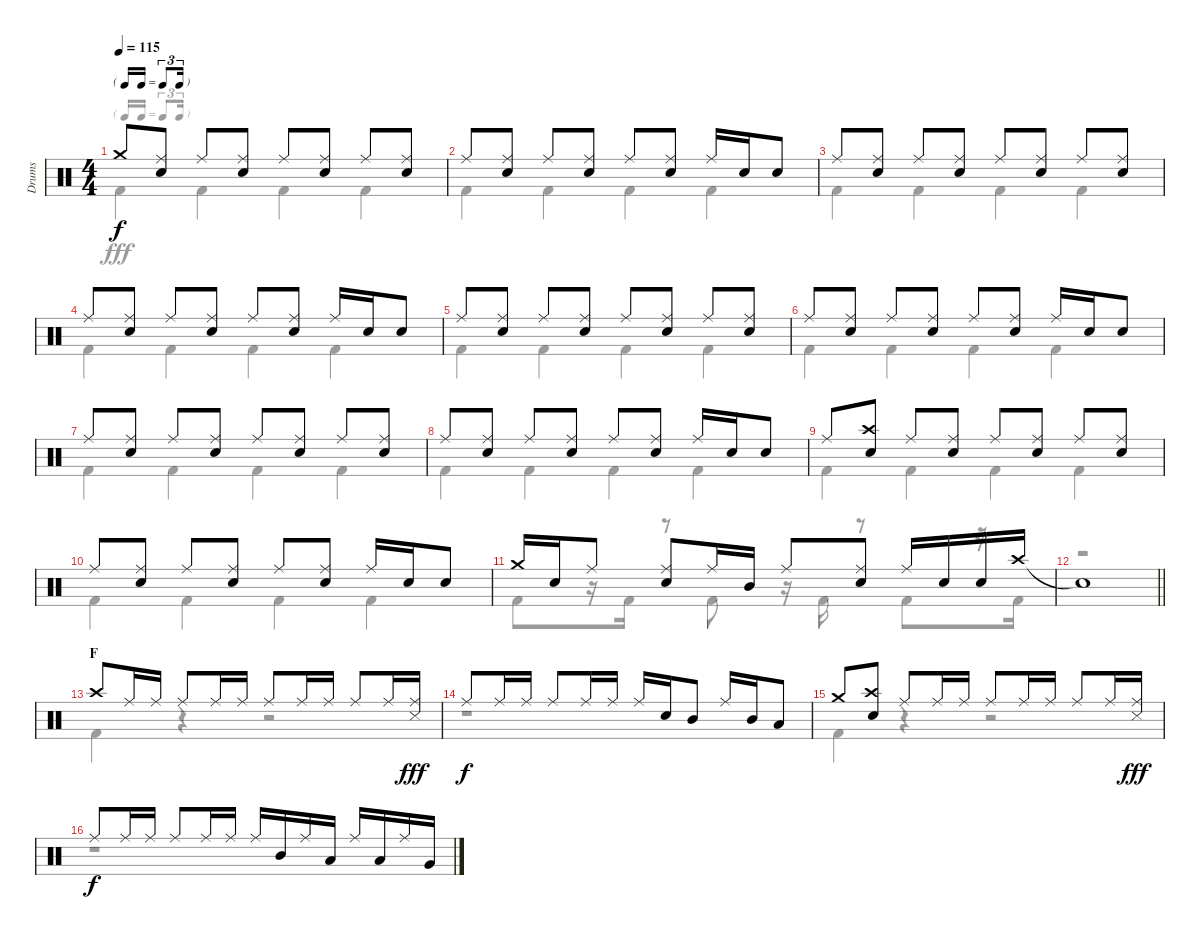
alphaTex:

\track ("Drums" "Drums") {instrument percussion}
\staff {score}
\articulation defaults
\voice
\ts (4 4)
\tf triplet16th
\tempo 115
\clef neutral
\ks c "Crash medium (hit)".8{dy f}
("Ride (middle)" "Snare (hit) 2").8 "Ride (middle)".8 ("Ride (middle)" "Snare (hit) 2").8 "Ride (middle)".8 ("Ride (middle)" "Snare (hit) 2").8 "Ride (middle)".8 ("Ride (middle)" "Snare (hit) 2").8 |
"Ride (middle)".8 ("Ride (middle)" "Snare (hit) 2").8 "Ride (middle)".8 ("Ride (middle)" "Snare (hit) 2").8 "Ride (middle)".8 ("Ride (middle)" "Snare (hit) 2").8 "Ride (middle)".16 "Snare (hit) 2".16 "Snare (hit) 2".8 |
"Ride (middle)".8 ("Ride (middle)" "Snare (hit) 2").8 "Ride (middle)".8 ("Ride (middle)" "Snare (hit) 2").8 "Ride (middle)".8 ("Ride (middle)" "Snare (hit) 2").8 "Ride (middle)".8 ("Ride (middle)" "Snare (hit) 2").8 |
"Ride (middle)".8 ("Ride (middle)" "Snare (hit) 2").8 "Ride (middle)".8 ("Ride (middle)" "Snare (hit) 2").8 "Ride (middle)".8 ("Ride (middle)" "Snare (hit) 2").8 "Ride (middle)".16 "Snare (hit) 2".16 "Snare (hit) 2".8 |
"Ride (middle)".8 ("Ride (middle)" "Snare (hit) 2").8 "Ride (middle)".8 ("Ride (middle)" "Snare (hit) 2").8 "Ride (middle)".8 ("Ride (middle)" "Snare (hit) 2").8 "Ride (middle)".8 ("Ride (middle)" "Snare (hit) 2").8 |
"Ride (middle)".8 ("Ride (middle)" "Snare (hit) 2").8 "Ride (middle)".8 ("Ride (middle)" "Snare (hit) 2").8 "Ride (middle)".8 ("Ride (middle)" "Snare (hit) 2").8 "Ride (middle)".16 "Snare (hit) 2".16 "Snare (hit) 2".8 |
"Ride (middle)".8 ("Ride (middle)" "Snare (hit) 2").8 "Ride (middle)".8 ("Ride (middle)" "Snare (hit) 2").8 "Ride (middle)".8 ("Ride (middle)" "Snare (hit) 2").8 "Ride (middle)".8 ("Ride (middle)" "Snare (hit) 2").8 |
"Ride (middle)".8 ("Ride (middle)" "Snare (hit) 2").8 "Ride (middle)".8 ("Ride (middle)" "Snare (hit) 2").8 "Ride (middle)".8 ("Ride (middle)" "Snare (hit) 2").8 "Ride (middle)".16 "Snare (hit) 2".16 "Snare (hit) 2".8 |
"Ride (middle)".8 ("Crash high (hit)" "Snare (hit) 2").8 "Ride (middle)".8 ("Ride (middle)" "Snare (hit) 2").8 "Ride (middle)".8 ("Ride (middle)" "Snare (hit) 2").8 "Ride (middle)".8 ("Ride (middle)" "Snare (hit) 2").8 |
"Ride (middle)".8 ("Ride (middle)" "Snare (hit) 2").8 "Ride (middle)".8 ("Ride (middle)" "Snare (hit) 2").8 "Ride (middle)".8 ("Ride (middle)" "Snare (hit) 2").8 "Ride (middle)".16 "Snare (hit) 2".16 "Snare (hit) 2".8 |
"Crash medium (hit)".16 "Snare (hit) 2".16 "Ride (middle)".8 ("Ride (middle)" "Snare (hit) 2").8 "Ride (middle)".16 "Mid Tom (hit)".16 "Ride (middle)".8 ("Ride (middle)" "Snare (hit) 2").8 "Ride (middle)".16 "Snare (hit) 2".16 "Snare (hit) 2".16 "Crash high (hit)".16 |
\barLineRight lightlight "Snare (hit)"{t}.1
|
\section ("" "F")
"Crash high (hit)".8 "Ride (middle)".16 "Ride (middle)".16 "Ride (middle)".8 "Ride (middle)".16 "Ride (middle)".16 "Ride (middle)".8 "Ride (middle)".16 "Ride (middle)".16 "Ride (middle)".8 "Ride (middle)".16 ("Ride (middle)" "Snare (side stick) 3").16{dy fff} |
"Ride (middle)".8{dy f} "Ride (middle)".16 "Ride (middle)".16 "Ride (middle)".8 "Ride (middle)".16 "Ride (middle)".16 "Ride (middle)".16 "Snare (hit) 2".16 "Mid Tom (hit)".8 "Ride (middle)".16 "Mid Tom (hit)".16 "Low Tom (hit)".8 |
"Crash medium (hit)".8 ("Crash high (hit)" "Snare (hit) 2").8 "Ride (middle)".8 "Ride (middle)".16 "Ride (middle)".16 "Ride (middle)".8 "Ride (middle)".16 "Ride (middle)".16 "Ride (middle)".8 "Ride (middle)".16 ("Ride (middle)" "Snare (side stick) 3").16{dy fff} |
"Ride (middle)".8{dy f} "Ride (middle)".16 "Ride (middle)".16 "Ride (middle)".8 "Ride (middle)".16 "Ride (middle)".16 "Ride (middle)".16 "Mid Tom (hit)".16 "Ride (middle)".16 "Low Tom (hit)".16 "Ride (middle)".16 "Low Tom (hit)".16 "Ride (middle)".16 "Very Low Tom (hit)".16
\voice
\clef neutral
\ottava regular
\simile none
\ks c "Kick (hit) 2".4{dy fff} "Kick (hit) 2".4 "Kick (hit) 2".4 "Kick (hit) 2".4
|
"Kick (hit) 2".4 "Kick (hit) 2".4 "Kick (hit) 2".4 "Kick (hit) 2".4 |
"Kick (hit) 2".4 "Kick (hit) 2".4 "Kick (hit) 2".4 "Kick (hit) 2".4 |
"Kick (hit) 2".4 "Kick (hit) 2".4 "Kick (hit) 2".4 "Kick (hit) 2".4 |
"Kick (hit) 2".4 "Kick (hit) 2".4 "Kick (hit) 2".4 "Kick (hit) 2".4 |
"Kick (hit) 2".4 "Kick (hit) 2".4 "Kick (hit) 2".4 "Kick (hit) 2".4 |
"Kick (hit) 2".4 "Kick (hit) 2".4 "Kick (hit) 2".4 "Kick (hit) 2".4 |
"Kick (hit) 2".4 "Kick (hit) 2".4 "Kick (hit) 2".4 "Kick (hit) 2".4 |
"Kick (hit) 2".4 "Kick (hit) 2".4 "Kick (hit) 2".4 "Kick (hit) 2".4 |
"Kick (hit) 2".4 "Kick (hit) 2".4 "Kick (hit) 2".4 "Kick (hit) 2".4 |
"Kick (hit) 2".8 r.16 "Kick (hit) 2".16 r.8 "Kick (hit) 2".8 r.16 "Kick (hit) 2".16 r.8 "Kick (hit) 2".8 r.16 "Kick (hit) 2".16 |
\barLineRight lightlight
r.1 |
"Kick (hit) 2".4 r.4 r.2 |
r.1 |
"Kick (hit) 2".4 r.4 r.2 |
r.1
